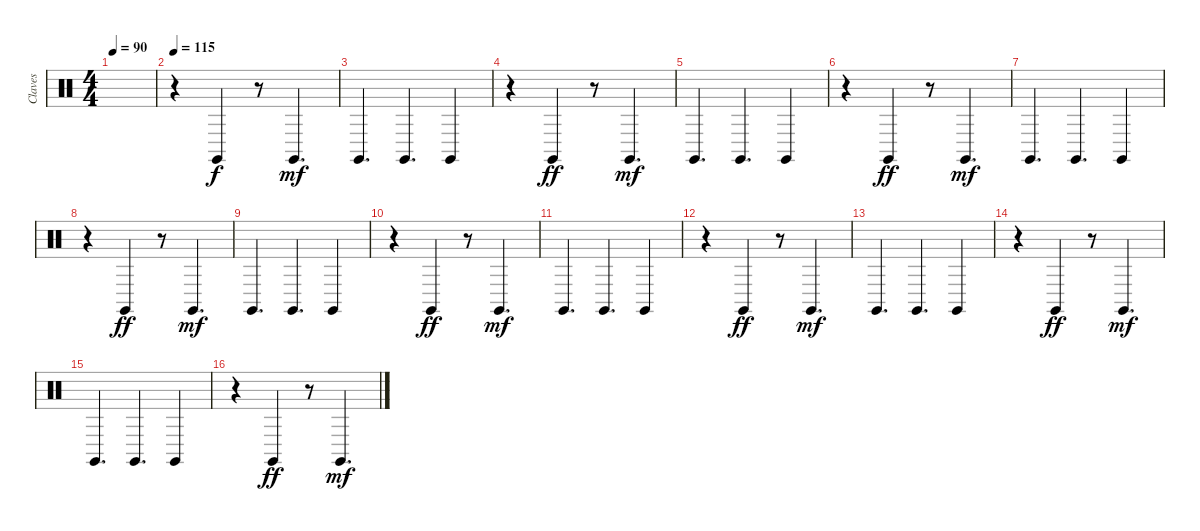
\track ("Claves" "Claves") {instrument percussion}
\staff {score}
\articulation defaults
\ts (4 4)
\tempo 90
\clef neutral
\ks c
|
\tempo 115
r.4 "Claves (hit)".4 r.8 "Claves (hit)".4{d dy mf} |
"Claves (hit)".4{d} "Claves (hit)".4{d} "Claves (hit)".4 |
r.4 "Claves (hit)".4{dy ff} r.8 "Claves (hit)".4{d dy mf} |
"Claves (hit)".4{d} "Claves (hit)".4{d} "Claves (hit)".4 |
r.4 "Claves (hit)".4{dy ff} r.8 "Claves (hit)".4{d dy mf} |
"Claves (hit)".4{d} "Claves (hit)".4{d} "Claves (hit)".4 |
r.4 "Claves (hit)".4{dy ff} r.8 "Claves (hit)".4{d dy mf} |
"Claves (hit)".4{d} "Claves (hit)".4{d} "Claves (hit)".4 |
r.4 "Claves (hit)".4{dy ff} r.8 "Claves (hit)".4{d dy mf} |
"Claves (hit)".4{d} "Claves (hit)".4{d} "Claves (hit)".4 |
r.4 "Claves (hit)".4{dy ff} r.8 "Claves (hit)".4{d dy mf} |
"Claves (hit)".4{d} "Claves (hit)".4{d} "Claves (hit)".4 |
r.4 "Claves (hit)".4{dy ff} r.8 "Claves (hit)".4{d dy mf} |
"Claves (hit)".4{d} "Claves (hit)".4{d} "Claves (hit)".4 |
r.4 "Claves (hit)".4{dy ff} r.8 "Claves (hit)".4{d dy mf}
